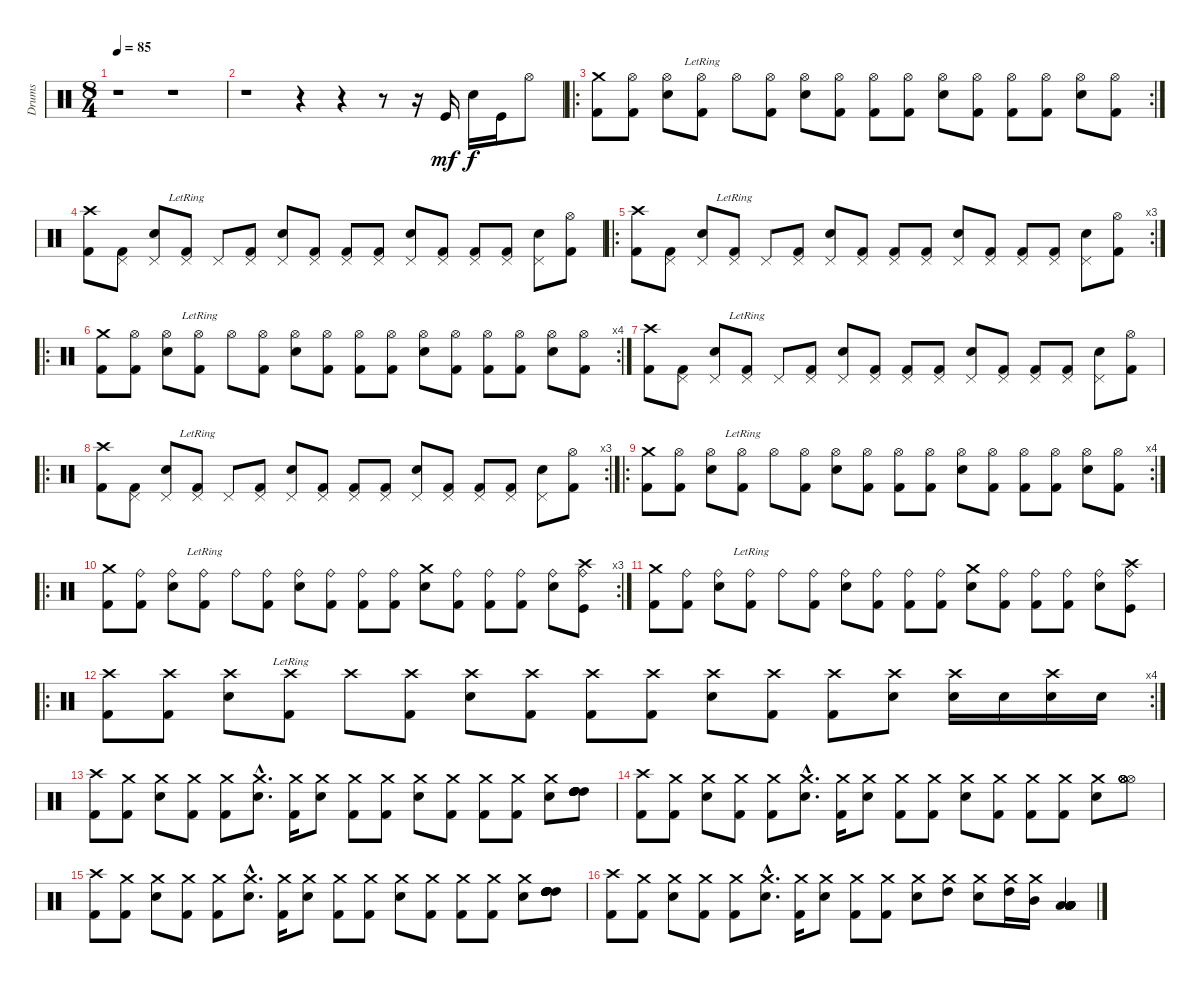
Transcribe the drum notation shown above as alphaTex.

\track ("Drums" "Drums") {instrument percussion}
\staff {score}
\articulation defaults
\ts (8 4)
\tempo 85
\clef neutral
\ks c
r.1{dy mf} r.1 |
r.1 r.4 r.4 r.8 r.16 "Kick (hit)".16 "Electric Snare (hit)".16{dy f} "Kick (hit)".16 "Hi-Hat (open)".8 |
\ro
\rc 2
("Kick (hit) 2" "Crash medium (hit)").8 ("Kick (hit) 2" "Hi-Hat (open)").8 ("Electric Snare (hit)" "Hi-Hat (open)").8 ("Kick (hit) 2" "Hi-Hat (open)"{lr}).8 "Hi-Hat (open)".8 ("Kick (hit) 2" "Hi-Hat (open)").8 ("Electric Snare (hit)" "Hi-Hat (open)").8 ("Kick (hit) 2" "Hi-Hat (open)").8 ("Kick (hit) 2" "Hi-Hat (open)").8 ("Kick (hit) 2" "Hi-Hat (open)").8 ("Electric Snare (hit)" "Hi-Hat (open)").8 ("Kick (hit) 2" "Hi-Hat (open)").8 ("Kick (hit) 2" "Hi-Hat (open)").8 ("Kick (hit) 2" "Hi-Hat (open)").8 ("Electric Snare (hit)" "Hi-Hat (open)").8 ("Kick (hit) 2" "Hi-Hat (open)").8 |
("Kick (hit) 2" "Crash high (hit)").8 ("Kick (hit) 2" "Pedal Hi-Hat (hit)").8 ("Electric Snare (hit)" "Pedal Hi-Hat (hit)").8 ("Kick (hit) 2" "Pedal Hi-Hat (hit)"{lr}).8 "Pedal Hi-Hat (hit)".8 ("Kick (hit) 2" "Pedal Hi-Hat (hit)").8 ("Electric Snare (hit)" "Pedal Hi-Hat (hit)").8 ("Kick (hit) 2" "Pedal Hi-Hat (hit)").8 ("Kick (hit) 2" "Pedal Hi-Hat (hit)").8 ("Kick (hit) 2" "Pedal Hi-Hat (hit)").8 ("Electric Snare (hit)" "Pedal Hi-Hat (hit)").8 ("Kick (hit) 2" "Pedal Hi-Hat (hit)").8 ("Kick (hit) 2" "Pedal Hi-Hat (hit)").8 ("Kick (hit) 2" "Pedal Hi-Hat (hit)").8 ("Electric Snare (hit)" "Pedal Hi-Hat (hit)").8 ("Kick (hit) 2" "Hi-Hat (open)").8 |
\ro
\rc 3
("Kick (hit) 2" "Crash high (hit)").8 ("Kick (hit) 2" "Pedal Hi-Hat (hit)").8 ("Electric Snare (hit)" "Pedal Hi-Hat (hit)").8 ("Kick (hit) 2" "Pedal Hi-Hat (hit)"{lr}).8 "Pedal Hi-Hat (hit)".8 ("Kick (hit) 2" "Pedal Hi-Hat (hit)").8 ("Electric Snare (hit)" "Pedal Hi-Hat (hit)").8 ("Kick (hit) 2" "Pedal Hi-Hat (hit)").8 ("Kick (hit) 2" "Pedal Hi-Hat (hit)").8 ("Kick (hit) 2" "Pedal Hi-Hat (hit)").8 ("Electric Snare (hit)" "Pedal Hi-Hat (hit)").8 ("Kick (hit) 2" "Pedal Hi-Hat (hit)").8 ("Kick (hit) 2" "Pedal Hi-Hat (hit)").8 ("Kick (hit) 2" "Pedal Hi-Hat (hit)").8 ("Electric Snare (hit)" "Pedal Hi-Hat (hit)").8 ("Kick (hit) 2" "Hi-Hat (open)").8 |
\ro
\rc 4
("Kick (hit) 2" "Crash medium (hit)").8 ("Kick (hit) 2" "Hi-Hat (open)").8 ("Electric Snare (hit)" "Hi-Hat (open)").8 ("Kick (hit) 2" "Hi-Hat (open)"{lr}).8 "Hi-Hat (open)".8 ("Kick (hit) 2" "Hi-Hat (open)").8 ("Electric Snare (hit)" "Hi-Hat (open)").8 ("Kick (hit) 2" "Hi-Hat (open)").8 ("Kick (hit) 2" "Hi-Hat (open)").8 ("Kick (hit) 2" "Hi-Hat (open)").8 ("Electric Snare (hit)" "Hi-Hat (open)").8 ("Kick (hit) 2" "Hi-Hat (open)").8 ("Kick (hit) 2" "Hi-Hat (open)").8 ("Kick (hit) 2" "Hi-Hat (open)").8 ("Electric Snare (hit)" "Hi-Hat (open)").8 ("Kick (hit) 2" "Hi-Hat (open)").8 |
("Kick (hit) 2" "Crash high (hit)").8 ("Kick (hit) 2" "Pedal Hi-Hat (hit)").8 ("Electric Snare (hit)" "Pedal Hi-Hat (hit)").8 ("Kick (hit) 2" "Pedal Hi-Hat (hit)"{lr}).8 "Pedal Hi-Hat (hit)".8 ("Kick (hit) 2" "Pedal Hi-Hat (hit)").8 ("Electric Snare (hit)" "Pedal Hi-Hat (hit)").8 ("Kick (hit) 2" "Pedal Hi-Hat (hit)").8 ("Kick (hit) 2" "Pedal Hi-Hat (hit)").8 ("Kick (hit) 2" "Pedal Hi-Hat (hit)").8 ("Electric Snare (hit)" "Pedal Hi-Hat (hit)").8 ("Kick (hit) 2" "Pedal Hi-Hat (hit)").8 ("Kick (hit) 2" "Pedal Hi-Hat (hit)").8 ("Kick (hit) 2" "Pedal Hi-Hat (hit)").8 ("Electric Snare (hit)" "Pedal Hi-Hat (hit)").8 ("Kick (hit) 2" "Hi-Hat (open)").8 |
\ro
\rc 3
("Kick (hit) 2" "Crash high (hit)").8 ("Kick (hit) 2" "Pedal Hi-Hat (hit)").8 ("Electric Snare (hit)" "Pedal Hi-Hat (hit)").8 ("Kick (hit) 2" "Pedal Hi-Hat (hit)"{lr}).8 "Pedal Hi-Hat (hit)".8 ("Kick (hit) 2" "Pedal Hi-Hat (hit)").8 ("Electric Snare (hit)" "Pedal Hi-Hat (hit)").8 ("Kick (hit) 2" "Pedal Hi-Hat (hit)").8 ("Kick (hit) 2" "Pedal Hi-Hat (hit)").8 ("Kick (hit) 2" "Pedal Hi-Hat (hit)").8 ("Electric Snare (hit)" "Pedal Hi-Hat (hit)").8 ("Kick (hit) 2" "Pedal Hi-Hat (hit)").8 ("Kick (hit) 2" "Pedal Hi-Hat (hit)").8 ("Kick (hit) 2" "Pedal Hi-Hat (hit)").8 ("Electric Snare (hit)" "Pedal Hi-Hat (hit)").8 ("Kick (hit) 2" "Hi-Hat (open)").8 |
\ro
\rc 4
("Kick (hit) 2" "Crash medium (hit)").8 ("Kick (hit) 2" "Hi-Hat (open)").8 ("Electric Snare (hit)" "Hi-Hat (open)").8 ("Kick (hit) 2" "Hi-Hat (open)"{lr}).8 "Hi-Hat (open)".8 ("Kick (hit) 2" "Hi-Hat (open)").8 ("Electric Snare (hit)" "Hi-Hat (open)").8 ("Kick (hit) 2" "Hi-Hat (open)").8 ("Kick (hit) 2" "Hi-Hat (open)").8 ("Kick (hit) 2" "Hi-Hat (open)").8 ("Electric Snare (hit)" "Hi-Hat (open)").8 ("Kick (hit) 2" "Hi-Hat (open)").8 ("Kick (hit) 2" "Hi-Hat (open)").8 ("Kick (hit) 2" "Hi-Hat (open)").8 ("Electric Snare (hit)" "Hi-Hat (open)").8 ("Kick (hit) 2" "Hi-Hat (open)").8 |
\ro
\rc 3
("Kick (hit) 2" "Crash medium (hit)").8 ("Kick (hit) 2" "Ride (bell)").8 ("Electric Snare (hit)" "Ride (bell)").8 ("Kick (hit) 2" "Ride (bell)"{lr}).8 "Ride (bell)".8 ("Kick (hit) 2" "Ride (bell)").8 ("Electric Snare (hit)" "Ride (bell)").8 ("Kick (hit) 2" "Ride (bell)").8 ("Kick (hit) 2" "Ride (bell)").8 ("Kick (hit) 2" "Ride (bell)").8 ("Electric Snare (hit)" "Crash medium (hit)").8 ("Kick (hit) 2" "Ride (bell)").8 ("Kick (hit) 2" "Ride (bell)").8 ("Kick (hit) 2" "Ride (bell)").8 ("Electric Snare (hit)" "Ride (bell)").8 ("Kick (hit)" "Ride (bell)" "Crash high (hit)").8 |
("Kick (hit) 2" "Crash medium (hit)").8 ("Kick (hit) 2" "Ride (bell)").8 ("Electric Snare (hit)" "Ride (bell)").8 ("Kick (hit) 2" "Ride (bell)"{lr}).8 "Ride (bell)".8 ("Kick (hit) 2" "Ride (bell)").8 ("Electric Snare (hit)" "Ride (bell)").8 ("Kick (hit) 2" "Ride (bell)").8 ("Kick (hit) 2" "Ride (bell)").8 ("Kick (hit) 2" "Ride (bell)").8 ("Electric Snare (hit)" "Crash medium (hit)").8 ("Kick (hit) 2" "Ride (bell)").8 ("Kick (hit) 2" "Ride (bell)").8 ("Kick (hit) 2" "Ride (bell)").8 ("Electric Snare (hit)" "Ride (bell)").8 ("Kick (hit)" "Ride (bell)" "Crash high (hit)").8 |
\ro
\rc 4
("Kick (hit) 2" "Crash high (hit)").8 ("Kick (hit) 2" "Crash high (hit)").8 ("Electric Snare (hit)" "Crash high (hit)").8 ("Kick (hit) 2" "Crash high (hit)"{lr}).8 "Crash high (hit)".8 ("Kick (hit) 2" "Crash high (hit)").8 ("Electric Snare (hit)" "Crash high (hit)").8 ("Kick (hit) 2" "Crash high (hit)").8 ("Kick (hit) 2" "Crash high (hit)").8 ("Kick (hit) 2" "Crash high (hit)").8 ("Electric Snare (hit)" "Crash high (hit)").8 ("Kick (hit) 2" "Crash high (hit)").8 ("Kick (hit) 2" "Crash high (hit)").8 ("Electric Snare (hit)" "Crash high (hit)").8 ("Electric Snare (hit)" "Crash high (hit)").16 "Electric Snare (hit)".16 ("Electric Snare (hit)" "Crash high (hit)").16 "Electric Snare (hit)".16 |
("Kick (hit) 2" "Crash high (hit)").8 ("Kick (hit) 2" "Crash medium (hit)").8 ("Electric Snare (hit)" "Crash medium (hit)").8 ("Kick (hit) 2" "Crash medium (hit)").8 ("Kick (hit) 2" "Crash medium (hit)").8 ("Electric Snare (hit)"{hac} "Crash medium (hit)"{hac}).8{d} ("Kick (hit) 2" "Crash medium (hit)").16 ("Electric Snare (hit)" "Crash medium (hit)").8 ("Kick (hit) 2" "Crash medium (hit)").8 ("Kick (hit) 2" "Crash medium (hit)").8 ("Electric Snare (hit)" "Crash medium (hit)").8 ("Kick (hit) 2" "Crash medium (hit)").8 ("Kick (hit) 2" "Crash medium (hit)").8 ("Kick (hit) 2" "Crash medium (hit)").8 ("Electric Snare (hit)" "Crash medium (hit)").8 ("High Tom (hit)" "High Tom (hit)" "High Tom (hit)" "High Tom (hit)" "High Tom (hit)" "High Tom (hit)").8 |
("Kick (hit) 2" "Crash high (hit)").8 ("Kick (hit) 2" "Crash medium (hit)").8 ("Electric Snare (hit)" "Crash medium (hit)").8 ("Kick (hit) 2" "Crash medium (hit)").8 ("Kick (hit) 2" "Crash medium (hit)").8 ("Electric Snare (hit)"{hac} "Crash medium (hit)"{hac}).8{d} ("Kick (hit) 2" "Crash medium (hit)").16 ("Electric Snare (hit)" "Crash medium (hit)").8 ("Kick (hit) 2" "Crash medium (hit)").8 ("Kick (hit) 2" "Crash medium (hit)").8 ("Electric Snare (hit)" "Crash medium (hit)").8 ("Kick (hit) 2" "Crash medium (hit)").8 ("Kick (hit) 2" "Crash medium (hit)").8 ("Kick (hit) 2" "Crash medium (hit)").8 ("Electric Snare (hit)" "Crash medium (hit)").8 ("Hi-Hat (open)" "Hi-Hat (open)" "Hi-Hat (open)" "Hi-Hat (open)" "Hi-Hat (open)" "Hi-Hat (open)").8 |
("Kick (hit) 2" "Crash high (hit)").8 ("Kick (hit) 2" "Crash medium (hit)").8 ("Electric Snare (hit)" "Crash medium (hit)").8 ("Kick (hit) 2" "Crash medium (hit)").8 ("Kick (hit) 2" "Crash medium (hit)").8 ("Electric Snare (hit)"{hac} "Crash medium (hit)"{hac}).8{d} ("Kick (hit) 2" "Crash medium (hit)").16 ("Electric Snare (hit)" "Crash medium (hit)").8 ("Kick (hit) 2" "Crash medium (hit)").8 ("Kick (hit) 2" "Crash medium (hit)").8 ("Electric Snare (hit)" "Crash medium (hit)").8 ("Kick (hit) 2" "Crash medium (hit)").8 ("Kick (hit) 2" "Crash medium (hit)").8 ("Kick (hit) 2" "Crash medium (hit)").8 ("Electric Snare (hit)" "Crash medium (hit)").8 ("High Tom (hit)" "High Tom (hit)" "High Tom (hit)" "High Tom (hit)" "High Tom (hit)" "High Tom (hit)").8 |
("Kick (hit) 2" "Crash high (hit)").8 ("Kick (hit) 2" "Crash medium (hit)").8 ("Electric Snare (hit)" "Crash medium (hit)").8 ("Kick (hit) 2" "Crash medium (hit)").8 ("Kick (hit) 2" "Crash medium (hit)").8 ("Electric Snare (hit)"{hac} "Crash medium (hit)"{hac}).8{d} ("Kick (hit) 2" "Crash medium (hit)").16 ("Electric Snare (hit)" "Crash medium (hit)").8 ("Kick (hit) 2" "Crash medium (hit)").8 ("Kick (hit) 2" "Crash medium (hit)").8 ("Electric Snare (hit)" "Crash medium (hit)").8 ("High Tom (hit)" "Crash medium (hit)").8 ("Electric Snare (hit)" "Crash medium (hit)").8 ("High Tom (hit)" "Crash medium (hit)").16 ("Mid Tom (hit)" "Crash medium (hit)").16 ("Low Tom (hit)" "Low Tom (hit)" "Low Tom (hit)" "Low Tom (hit)" "Low Tom (hit)" "Low Tom (hit)").4
